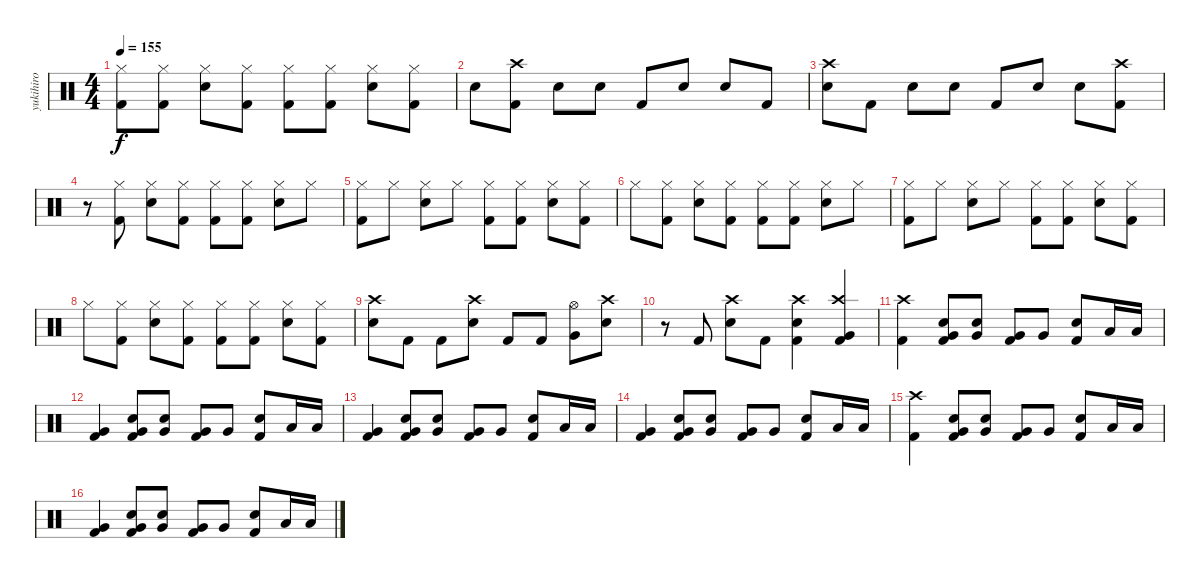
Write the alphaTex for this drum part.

\track ("yukihiro" "yukihiro") {instrument percussion}
\staff {score}
\articulation defaults
\ts (4 4)
\tempo 155
\clef neutral
\ks c
("Hi-Hat (closed)" "Kick (hit) 2").8{dy f} ("Hi-Hat (closed)" "Kick (hit) 2").8 ("Hi-Hat (closed)" "Snare (hit) 2").8 ("Hi-Hat (closed)" "Kick (hit) 2").8 ("Hi-Hat (closed)" "Kick (hit) 2").8 ("Hi-Hat (closed)" "Kick (hit) 2").8 ("Hi-Hat (closed)" "Snare (hit) 2").8 ("Hi-Hat (closed)" "Kick (hit) 2").8 |
"Snare (hit) 2".8 ("Crash high (hit)" "Kick (hit) 2").8 "Snare (hit) 2".8 "Snare (hit) 2".8 "Kick (hit) 2".8 "Snare (hit) 2".8 "Snare (hit) 2".8 "Kick (hit) 2".8 |
("Crash high (hit)" "Snare (hit) 2").8 "Kick (hit) 2".8 "Snare (hit) 2".8 "Snare (hit) 2".8 "Kick (hit) 2".8 "Snare (hit) 2".8 "Snare (hit) 2".8 ("Crash high (hit)" "Kick (hit) 2").8 |
r.8 ("Hi-Hat (closed)" "Kick (hit) 2").8 ("Hi-Hat (closed)" "Snare (hit) 2").8 ("Hi-Hat (closed)" "Kick (hit) 2").8 ("Hi-Hat (closed)" "Kick (hit) 2").8 ("Hi-Hat (closed)" "Kick (hit) 2").8 ("Hi-Hat (closed)" "Snare (hit) 2").8 "Hi-Hat (closed)".8 |
("Hi-Hat (closed)" "Kick (hit) 2").8 "Hi-Hat (closed)".8 ("Hi-Hat (closed)" "Snare (hit) 2").8 "Hi-Hat (closed)".8 ("Hi-Hat (closed)" "Kick (hit) 2").8 ("Hi-Hat (closed)" "Kick (hit) 2").8 ("Hi-Hat (closed)" "Snare (hit) 2").8 ("Hi-Hat (closed)" "Kick (hit) 2").8 |
"Hi-Hat (closed)".8 ("Hi-Hat (closed)" "Kick (hit) 2").8 ("Hi-Hat (closed)" "Snare (hit) 2").8 ("Hi-Hat (closed)" "Kick (hit) 2").8 ("Hi-Hat (closed)" "Kick (hit) 2").8 ("Hi-Hat (closed)" "Kick (hit) 2").8 ("Hi-Hat (closed)" "Snare (hit) 2").8 "Hi-Hat (closed)".8 |
("Hi-Hat (closed)" "Kick (hit) 2").8 "Hi-Hat (closed)".8 ("Hi-Hat (closed)" "Snare (hit) 2").8 "Hi-Hat (closed)".8 ("Hi-Hat (closed)" "Kick (hit) 2").8 ("Hi-Hat (closed)" "Kick (hit) 2").8 ("Hi-Hat (closed)" "Snare (hit) 2").8 ("Hi-Hat (closed)" "Kick (hit) 2").8 |
"Hi-Hat (closed)".8 ("Hi-Hat (closed)" "Kick (hit) 2").8 ("Hi-Hat (closed)" "Snare (hit) 2").8 ("Hi-Hat (closed)" "Kick (hit) 2").8 ("Hi-Hat (closed)" "Kick (hit) 2").8 ("Hi-Hat (closed)" "Kick (hit) 2").8 ("Hi-Hat (closed)" "Snare (hit) 2").8 ("Hi-Hat (closed)" "Kick (hit) 2").8 |
("Crash high (hit)" "Snare (hit) 2").8 "Kick (hit) 2".8 "Kick (hit) 2".8 ("Crash high (hit)" "Snare (hit) 2").8 "Kick (hit) 2".8 "Kick (hit) 2".8 ("Hi-Hat (open)" "Very Low Tom (hit)").8 ("Crash high (hit)" "Snare (hit) 2").8 |
r.8 "Kick (hit) 2".8 ("Crash high (hit)" "Snare (hit) 2").8 "Kick (hit) 2".8 ("Crash high (hit)" "Snare (hit) 2" "Kick (hit) 2").4 ("Crash high (hit)" "Very Low Tom (hit)" "Kick (hit) 2").4 |
("Crash high (hit)" "Kick (hit) 2").4 ("Very Low Tom (hit)" "Snare (hit) 2" "Kick (hit) 2").8 ("Very Low Tom (hit)" "Snare (hit) 2").8 ("Very Low Tom (hit)" "Kick (hit) 2").8 "Very Low Tom (hit)".8 ("Snare (hit) 2" "Kick (hit) 2").8 "Low Tom (hit)".16 "Low Floor Tom (hit)".16 |
("Very Low Tom (hit)" "Kick (hit) 2").4 ("Very Low Tom (hit)" "Snare (hit) 2" "Kick (hit) 2").8 ("Very Low Tom (hit)" "Snare (hit) 2").8 ("Very Low Tom (hit)" "Kick (hit) 2").8 "Very Low Tom (hit)".8 ("Snare (hit) 2" "Kick (hit) 2").8 "Low Tom (hit)".16 "Low Floor Tom (hit)".16 |
("Very Low Tom (hit)" "Kick (hit) 2").4 ("Very Low Tom (hit)" "Snare (hit) 2" "Kick (hit) 2").8 ("Very Low Tom (hit)" "Snare (hit) 2").8 ("Very Low Tom (hit)" "Kick (hit) 2").8 "Very Low Tom (hit)".8 ("Snare (hit) 2" "Kick (hit) 2").8 "Low Tom (hit)".16 "Low Floor Tom (hit)".16 |
("Very Low Tom (hit)" "Kick (hit) 2").4 ("Very Low Tom (hit)" "Snare (hit) 2" "Kick (hit) 2").8 ("Very Low Tom (hit)" "Snare (hit) 2").8 ("Very Low Tom (hit)" "Kick (hit) 2").8 "Very Low Tom (hit)".8 ("Snare (hit) 2" "Kick (hit) 2").8 "Low Tom (hit)".16 "Low Floor Tom (hit)".16 |
("Crash high (hit)" "Kick (hit) 2").4 ("Very Low Tom (hit)" "Snare (hit) 2" "Kick (hit) 2").8 ("Very Low Tom (hit)" "Snare (hit) 2").8 ("Very Low Tom (hit)" "Kick (hit) 2").8 "Very Low Tom (hit)".8 ("Snare (hit) 2" "Kick (hit) 2").8 "Low Tom (hit)".16 "Low Floor Tom (hit)".16 |
("Very Low Tom (hit)" "Kick (hit) 2").4 ("Very Low Tom (hit)" "Snare (hit) 2" "Kick (hit) 2").8 ("Very Low Tom (hit)" "Snare (hit) 2").8 ("Very Low Tom (hit)" "Kick (hit) 2").8 "Very Low Tom (hit)".8 ("Snare (hit) 2" "Kick (hit) 2").8 "Low Tom (hit)".16 "Low Floor Tom (hit)".16
